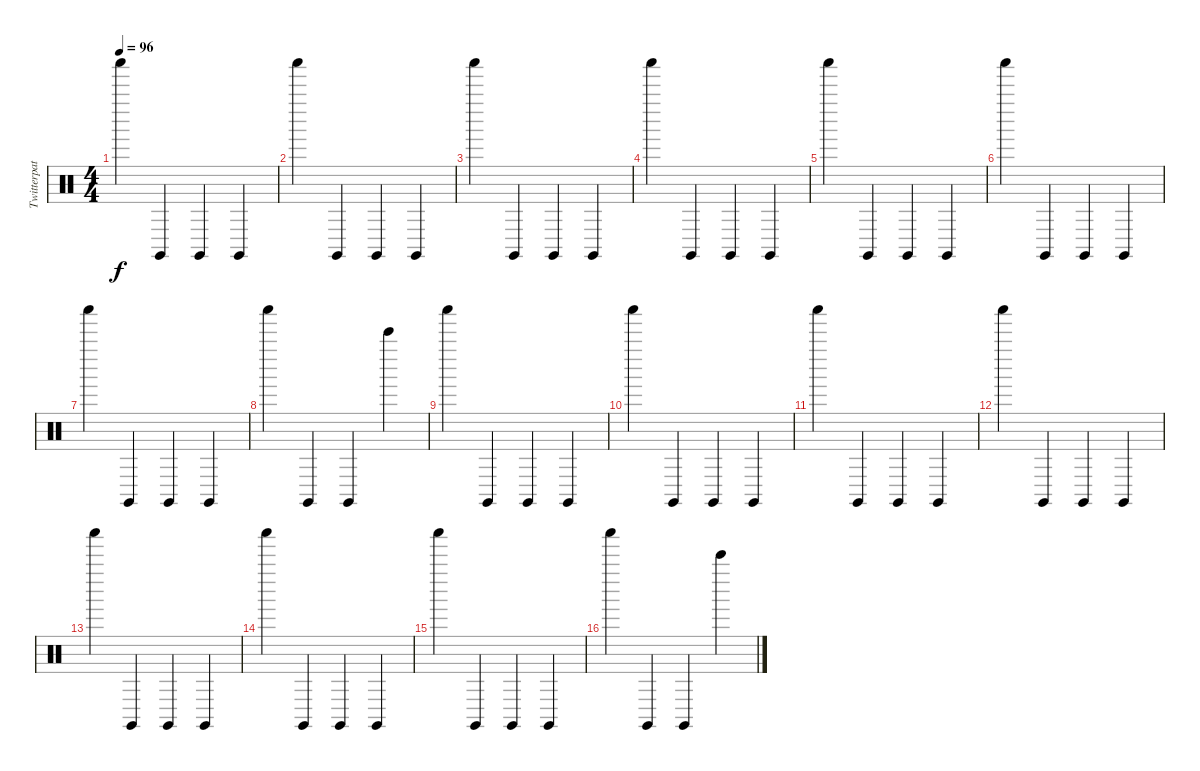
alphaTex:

\track ("Twitterpated" "Twitterpat") {instrument percussion}
\staff {score}
\articulation defaults
\ts (4 4)
\tempo 96
\clef neutral
\ks c "Shaker (hit)".4{dy f} "Claves (hit)".4 "Claves (hit)".4 "Claves (hit)".4
|
"Shaker (hit)".4 "Claves (hit)".4 "Claves (hit)".4 "Claves (hit)".4 |
"Shaker (hit)".4 "Claves (hit)".4 "Claves (hit)".4 "Claves (hit)".4 |
"Shaker (hit)".4 "Claves (hit)".4 "Claves (hit)".4 "Claves (hit)".4 |
"Shaker (hit)".4 "Claves (hit)".4 "Claves (hit)".4 "Claves (hit)".4 |
"Shaker (hit)".4 "Claves (hit)".4 "Claves (hit)".4 "Claves (hit)".4 |
"Shaker (hit)".4 "Claves (hit)".4 "Claves (hit)".4 "Claves (hit)".4 |
"Shaker (hit)".4 "Claves (hit)".4 "Claves (hit)".4 "Bell Tree (hit)".4 |
"Shaker (hit)".4 "Claves (hit)".4 "Claves (hit)".4 "Claves (hit)".4 |
"Shaker (hit)".4 "Claves (hit)".4 "Claves (hit)".4 "Claves (hit)".4 |
"Shaker (hit)".4 "Claves (hit)".4 "Claves (hit)".4 "Claves (hit)".4 |
"Shaker (hit)".4 "Claves (hit)".4 "Claves (hit)".4 "Claves (hit)".4 |
"Shaker (hit)".4 "Claves (hit)".4 "Claves (hit)".4 "Claves (hit)".4 |
"Shaker (hit)".4 "Claves (hit)".4 "Claves (hit)".4 "Claves (hit)".4 |
"Shaker (hit)".4 "Claves (hit)".4 "Claves (hit)".4 "Claves (hit)".4 |
"Shaker (hit)".4 "Claves (hit)".4 "Claves (hit)".4 "Bell Tree (hit)".4
